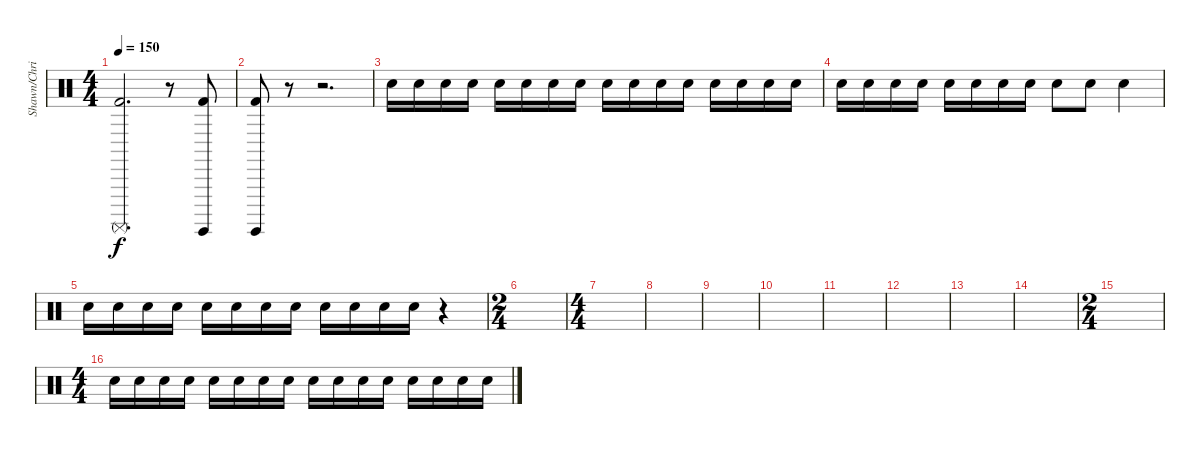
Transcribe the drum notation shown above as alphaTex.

\track ("Shawn/Chris" "Shawn/Chri") {instrument percussion}
\staff {score}
\articulation defaults
\ts (4 4)
\tempo 150
\clef neutral
\ks c
("Surdo (mute)" "Kick (hit) 2").2{d dy f} r.8 ("Surdo (hit)" "Kick (hit) 2").8 |
("Surdo (hit)" "Kick (hit) 2").8 r.8 r.2{d} |
"Snare (hit) 2".16 "Snare (hit) 2".16 "Snare (hit) 2".16 "Snare (hit) 2".16 "Snare (hit) 2".16 "Snare (hit) 2".16 "Snare (hit) 2".16 "Snare (hit) 2".16 "Snare (hit) 2".16 "Snare (hit) 2".16 "Snare (hit) 2".16 "Snare (hit) 2".16 "Snare (hit) 2".16 "Snare (hit) 2".16 "Snare (hit) 2".16 "Snare (hit) 2".16 |
"Snare (hit) 2".16 "Snare (hit) 2".16 "Snare (hit) 2".16 "Snare (hit) 2".16 "Snare (hit) 2".16 "Snare (hit) 2".16 "Snare (hit) 2".16 "Snare (hit) 2".16 "Snare (hit) 2".8 "Snare (hit) 2".8 "Snare (hit) 2".4 |
"Snare (hit) 2".16 "Snare (hit) 2".16 "Snare (hit) 2".16 "Snare (hit) 2".16 "Snare (hit) 2".16 "Snare (hit) 2".16 "Snare (hit) 2".16 "Snare (hit) 2".16 "Snare (hit) 2".16 "Snare (hit) 2".16 "Snare (hit) 2".16 "Snare (hit) 2".16 r.4 |
\ts (2 4)
|
\ts (4 4)
|
|
|
|
|
|
|
|
\ts (2 4)
|
\ts (4 4)
"Snare (hit) 2".16 "Snare (hit) 2".16 "Snare (hit) 2".16 "Snare (hit) 2".16 "Snare (hit) 2".16 "Snare (hit) 2".16 "Snare (hit) 2".16 "Snare (hit) 2".16 "Snare (hit) 2".16 "Snare (hit) 2".16 "Snare (hit) 2".16 "Snare (hit) 2".16 "Snare (hit) 2".16 "Snare (hit) 2".16 "Snare (hit) 2".16 "Snare (hit) 2".16
